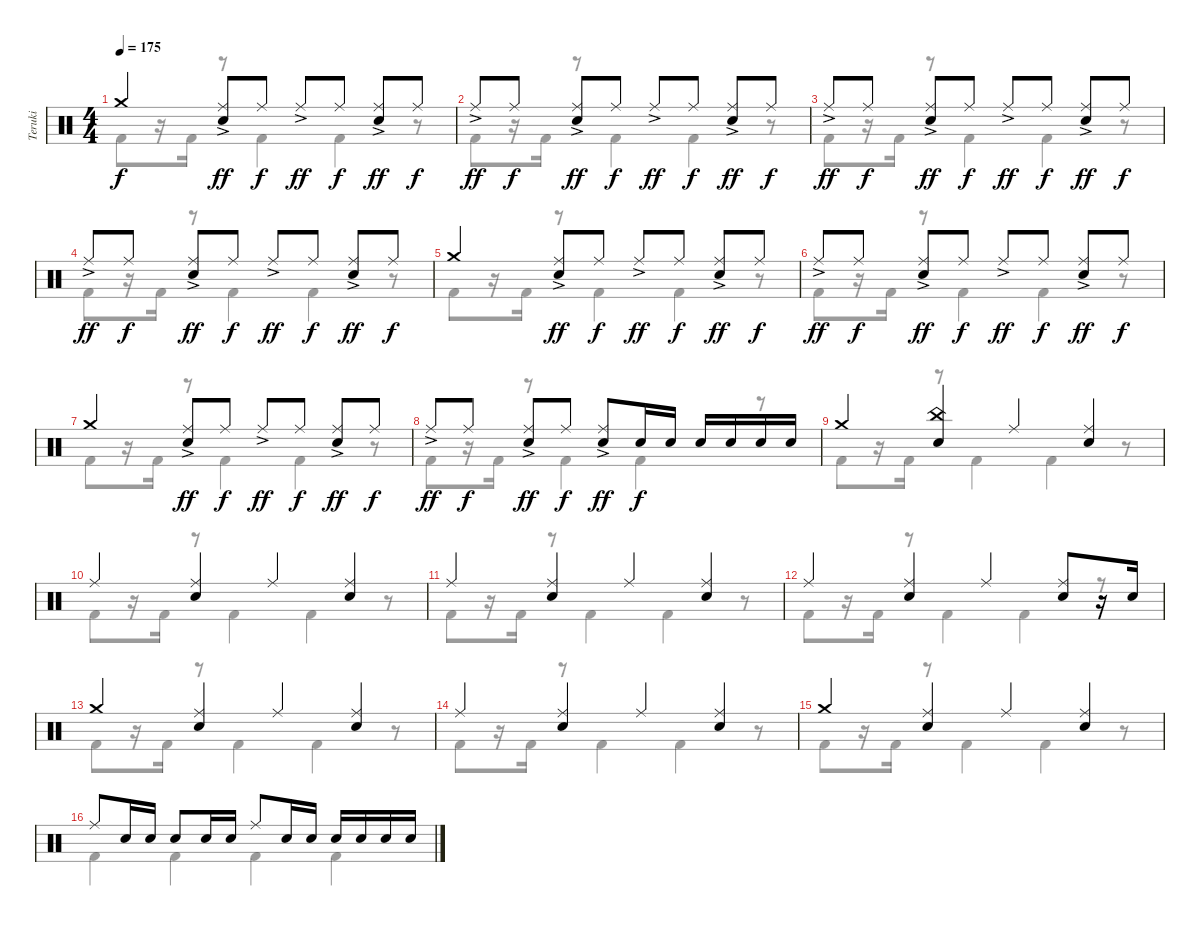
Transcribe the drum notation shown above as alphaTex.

\track ("Teruki" "Teruki") {instrument percussion}
\staff {score}
\articulation defaults
\voice
\ts (4 4)
\tempo 175
\clef neutral
\ks c "Crash medium (hit)".4{dy f}
("Ride (middle)"{ac} "Snare (hit) 2").8{dy ff} "Ride (middle)".8{dy f} "Ride (middle)"{ac}.8{dy ff} "Ride (middle)".8{dy f} ("Ride (middle)"{ac} "Snare (hit) 2").8{dy ff} "Ride (middle)".8{dy f} |
"Ride (middle)"{ac}.8{dy ff} "Ride (middle)".8{dy f} ("Ride (middle)"{ac} "Snare (hit) 2").8{dy ff} "Ride (middle)".8{dy f} "Ride (middle)"{ac}.8{dy ff} "Ride (middle)".8{dy f} ("Ride (middle)"{ac} "Snare (hit) 2").8{dy ff} "Ride (middle)".8{dy f} |
"Ride (middle)"{ac}.8{dy ff} "Ride (middle)".8{dy f} ("Ride (middle)"{ac} "Snare (hit) 2").8{dy ff} "Ride (middle)".8{dy f} "Ride (middle)"{ac}.8{dy ff} "Ride (middle)".8{dy f} ("Ride (middle)"{ac} "Snare (hit) 2").8{dy ff} "Ride (middle)".8{dy f} |
"Ride (middle)"{ac}.8{dy ff} "Ride (middle)".8{dy f} ("Ride (middle)"{ac} "Snare (hit) 2").8{dy ff} "Ride (middle)".8{dy f} "Ride (middle)"{ac}.8{dy ff} "Ride (middle)".8{dy f} ("Ride (middle)"{ac} "Snare (hit) 2").8{dy ff} "Ride (middle)".8{dy f} |
"Crash medium (hit)".4 ("Ride (middle)"{ac} "Snare (hit) 2").8{dy ff} "Ride (middle)".8{dy f} "Ride (middle)"{ac}.8{dy ff} "Ride (middle)".8{dy f} ("Ride (middle)"{ac} "Snare (hit) 2").8{dy ff} "Ride (middle)".8{dy f} |
"Ride (middle)"{ac}.8{dy ff} "Ride (middle)".8{dy f} ("Ride (middle)"{ac} "Snare (hit) 2").8{dy ff} "Ride (middle)".8{dy f} "Ride (middle)"{ac}.8{dy ff} "Ride (middle)".8{dy f} ("Ride (middle)"{ac} "Snare (hit) 2").8{dy ff} "Ride (middle)".8{dy f} |
"Crash medium (hit)".4 ("Ride (middle)"{ac} "Snare (hit) 2").8{dy ff} "Ride (middle)".8{dy f} "Ride (middle)"{ac}.8{dy ff} "Ride (middle)".8{dy f} ("Ride (middle)"{ac} "Snare (hit) 2").8{dy ff} "Ride (middle)".8{dy f} |
"Ride (middle)"{ac}.8{dy ff} "Ride (middle)".8{dy f} ("Ride (middle)"{ac} "Snare (hit) 2").8{dy ff} "Ride (middle)".8{dy f} ("Ride (middle)"{ac} "Snare (hit) 2").8{dy ff} "Snare (hit) 2".16{dy f} "Snare (hit) 2".16 "Snare (hit) 2".16 "Snare (hit) 2".16 "Snare (hit) 2".16 "Snare (hit) 2".16 |
"Crash medium (hit)".4 ("China (hit)" "Snare (hit) 2").4 "Ride (middle)".4 ("Ride (middle)" "Snare (hit) 2").4 |
"Ride (middle)".4 ("Ride (middle)" "Snare (hit) 2").4 "Ride (middle)".4 ("Ride (middle)" "Snare (hit) 2").4 |
"Ride (middle)".4 ("Ride (middle)" "Snare (hit) 2").4 "Ride (middle)".4 ("Ride (middle)" "Snare (hit) 2").4 |
"Ride (middle)".4 ("Ride (middle)" "Snare (hit) 2").4 "Ride (middle)".4 ("Ride (middle)" "Snare (hit) 2").8 r.16 "Snare (hit) 2".16 |
"Crash medium (hit)".4 ("Ride (middle)" "Snare (hit) 2").4 "Ride (middle)".4 ("Ride (middle)" "Snare (hit) 2").4 |
"Ride (middle)".4 ("Ride (middle)" "Snare (hit) 2").4 "Ride (middle)".4 ("Ride (middle)" "Snare (hit) 2").4 |
"Crash medium (hit)".4 ("Ride (middle)" "Snare (hit) 2").4 "Ride (middle)".4 ("Ride (middle)" "Snare (hit) 2").4 |
"Ride (middle)".8 "Snare (hit) 2".16 "Snare (hit) 2".16 "Snare (hit) 2".8 "Snare (hit) 2".16 "Snare (hit) 2".16 "Ride (middle)".8 "Snare (hit) 2".16 "Snare (hit) 2".16 "Snare (hit) 2".16 "Snare (hit) 2".16 "Snare (hit) 2".16 "Snare (hit) 2".16
\voice
\clef neutral
\ottava regular
\simile none
\ks c "Kick (hit) 2".8{dy f}
r.16 "Kick (hit) 2".16 r.8 "Kick (hit) 2".4 "Kick (hit) 2".4 r.8 |
"Kick (hit) 2".8 r.16 "Kick (hit) 2".16 r.8 "Kick (hit) 2".4 "Kick (hit) 2".4 r.8 |
"Kick (hit) 2".8 r.16 "Kick (hit) 2".16 r.8 "Kick (hit) 2".4 "Kick (hit) 2".4 r.8 |
"Kick (hit) 2".8 r.16 "Kick (hit) 2".16 r.8 "Kick (hit) 2".4 "Kick (hit) 2".4 r.8 |
"Kick (hit) 2".8 r.16 "Kick (hit) 2".16 r.8 "Kick (hit) 2".4 "Kick (hit) 2".4 r.8 |
"Kick (hit) 2".8 r.16 "Kick (hit) 2".16 r.8 "Kick (hit) 2".4 "Kick (hit) 2".4 r.8 |
"Kick (hit) 2".8 r.16 "Kick (hit) 2".16 r.8 "Kick (hit) 2".4 "Kick (hit) 2".4 r.8 |
"Kick (hit) 2".8 r.16 "Kick (hit) 2".16 r.8 "Kick (hit) 2".4 "Kick (hit) 2".4 r.8 |
"Kick (hit) 2".8 r.16 "Kick (hit) 2".16 r.8 "Kick (hit) 2".4 "Kick (hit) 2".4 r.8 |
"Kick (hit) 2".8 r.16 "Kick (hit) 2".16 r.8 "Kick (hit) 2".4 "Kick (hit) 2".4 r.8 |
"Kick (hit) 2".8 r.16 "Kick (hit) 2".16 r.8 "Kick (hit) 2".4 "Kick (hit) 2".4 r.8 |
"Kick (hit) 2".8 r.16 "Kick (hit) 2".16 r.8 "Kick (hit) 2".4 "Kick (hit) 2".4 r.8 |
"Kick (hit) 2".8 r.16 "Kick (hit) 2".16 r.8 "Kick (hit) 2".4 "Kick (hit) 2".4 r.8 |
"Kick (hit) 2".8 r.16 "Kick (hit) 2".16 r.8 "Kick (hit) 2".4 "Kick (hit) 2".4 r.8 |
"Kick (hit) 2".8 r.16 "Kick (hit) 2".16 r.8 "Kick (hit) 2".4 "Kick (hit) 2".4 r.8 |
"Kick (hit) 2".4 "Kick (hit) 2".4 "Kick (hit) 2".4 "Kick (hit) 2".4
